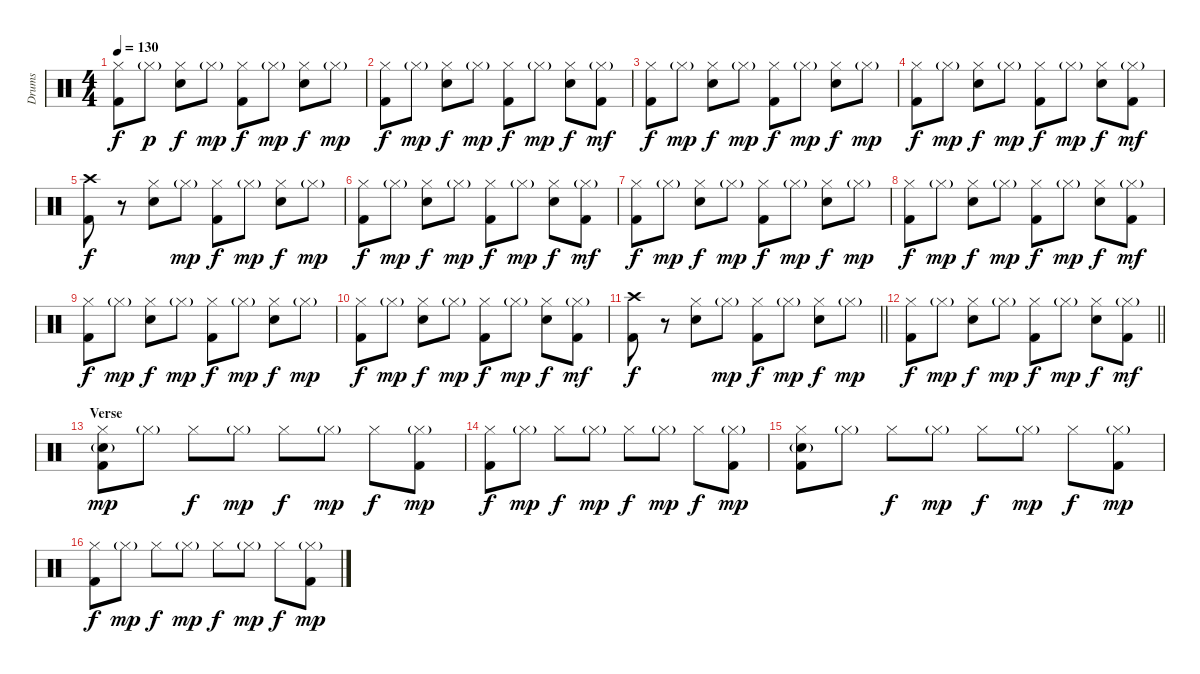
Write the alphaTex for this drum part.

\track ("Drums" "Drums") {instrument percussion}
\staff {score}
\articulation defaults
\ts (4 4)
\tempo 130
\clef neutral
\ks c
("Hi-Hat (closed)" "Kick (hit) 2").8{dy f} "Hi-Hat (closed)"{g}.8{dy p} ("Hi-Hat (closed)" "Snare (hit) 2").8{dy f} "Hi-Hat (closed)"{g}.8{dy mp} ("Hi-Hat (closed)" "Kick (hit) 2").8{dy f} "Hi-Hat (closed)"{g}.8{dy mp} ("Hi-Hat (closed)" "Snare (hit) 2").8{dy f} "Hi-Hat (closed)"{g}.8{dy mp} |
("Hi-Hat (closed)" "Kick (hit) 2").8{dy f} "Hi-Hat (closed)"{g}.8{dy mp} ("Hi-Hat (closed)" "Snare (hit) 2").8{dy f} "Hi-Hat (closed)"{g}.8{dy mp} ("Hi-Hat (closed)" "Kick (hit) 2").8{dy f} "Hi-Hat (closed)"{g}.8{dy mp} ("Hi-Hat (closed)" "Snare (hit) 2").8{dy f} ("Hi-Hat (closed)"{g} "Kick (hit) 2").8{dy mf} |
("Hi-Hat (closed)" "Kick (hit) 2").8{dy f} "Hi-Hat (closed)"{g}.8{dy mp} ("Hi-Hat (closed)" "Snare (hit) 2").8{dy f} "Hi-Hat (closed)"{g}.8{dy mp} ("Hi-Hat (closed)" "Kick (hit) 2").8{dy f} "Hi-Hat (closed)"{g}.8{dy mp} ("Hi-Hat (closed)" "Snare (hit) 2").8{dy f} "Hi-Hat (closed)"{g}.8{dy mp} |
("Hi-Hat (closed)" "Kick (hit) 2").8{dy f} "Hi-Hat (closed)"{g}.8{dy mp} ("Hi-Hat (closed)" "Snare (hit) 2").8{dy f} "Hi-Hat (closed)"{g}.8{dy mp} ("Hi-Hat (closed)" "Kick (hit) 2").8{dy f} "Hi-Hat (closed)"{g}.8{dy mp} ("Hi-Hat (closed)" "Snare (hit) 2").8{dy f} ("Hi-Hat (closed)"{g} "Kick (hit) 2").8{dy mf} |
("Crash high (hit)" "Kick (hit) 2").8{dy f} r.8 ("Hi-Hat (closed)" "Snare (hit) 2").8 "Hi-Hat (closed)"{g}.8{dy mp} ("Hi-Hat (closed)" "Kick (hit) 2").8{dy f} "Hi-Hat (closed)"{g}.8{dy mp} ("Hi-Hat (closed)" "Snare (hit) 2").8{dy f} "Hi-Hat (closed)"{g}.8{dy mp} |
("Hi-Hat (closed)" "Kick (hit) 2").8{dy f} "Hi-Hat (closed)"{g}.8{dy mp} ("Hi-Hat (closed)" "Snare (hit) 2").8{dy f} "Hi-Hat (closed)"{g}.8{dy mp} ("Hi-Hat (closed)" "Kick (hit) 2").8{dy f} "Hi-Hat (closed)"{g}.8{dy mp} ("Hi-Hat (closed)" "Snare (hit) 2").8{dy f} ("Hi-Hat (closed)"{g} "Kick (hit) 2").8{dy mf} |
("Hi-Hat (closed)" "Kick (hit) 2").8{dy f} "Hi-Hat (closed)"{g}.8{dy mp} ("Hi-Hat (closed)" "Snare (hit) 2").8{dy f} "Hi-Hat (closed)"{g}.8{dy mp} ("Hi-Hat (closed)" "Kick (hit) 2").8{dy f} "Hi-Hat (closed)"{g}.8{dy mp} ("Hi-Hat (closed)" "Snare (hit) 2").8{dy f} "Hi-Hat (closed)"{g}.8{dy mp} |
("Hi-Hat (closed)" "Kick (hit) 2").8{dy f} "Hi-Hat (closed)"{g}.8{dy mp} ("Hi-Hat (closed)" "Snare (hit) 2").8{dy f} "Hi-Hat (closed)"{g}.8{dy mp} ("Hi-Hat (closed)" "Kick (hit) 2").8{dy f} "Hi-Hat (closed)"{g}.8{dy mp} ("Hi-Hat (closed)" "Snare (hit) 2").8{dy f} ("Hi-Hat (closed)"{g} "Kick (hit) 2").8{dy mf} |
("Hi-Hat (closed)" "Kick (hit) 2").8{dy f} "Hi-Hat (closed)"{g}.8{dy mp} ("Hi-Hat (closed)" "Snare (hit) 2").8{dy f} "Hi-Hat (closed)"{g}.8{dy mp} ("Hi-Hat (closed)" "Kick (hit) 2").8{dy f} "Hi-Hat (closed)"{g}.8{dy mp} ("Hi-Hat (closed)" "Snare (hit) 2").8{dy f} "Hi-Hat (closed)"{g}.8{dy mp} |
("Hi-Hat (closed)" "Kick (hit) 2").8{dy f} "Hi-Hat (closed)"{g}.8{dy mp} ("Hi-Hat (closed)" "Snare (hit) 2").8{dy f} "Hi-Hat (closed)"{g}.8{dy mp} ("Hi-Hat (closed)" "Kick (hit) 2").8{dy f} "Hi-Hat (closed)"{g}.8{dy mp} ("Hi-Hat (closed)" "Snare (hit) 2").8{dy f} ("Hi-Hat (closed)"{g} "Kick (hit) 2").8{dy mf} |
\barLineRight lightlight
("Crash high (hit)" "Kick (hit) 2").8{dy f} r.8 ("Hi-Hat (closed)" "Snare (hit) 2").8 "Hi-Hat (closed)"{g}.8{dy mp} ("Hi-Hat (closed)" "Kick (hit) 2").8{dy f} "Hi-Hat (closed)"{g}.8{dy mp} ("Hi-Hat (closed)" "Snare (hit) 2").8{dy f} "Hi-Hat (closed)"{g}.8{dy mp} |
\barLineRight lightlight
("Hi-Hat (closed)" "Kick (hit) 2").8{dy f} "Hi-Hat (closed)"{g}.8{dy mp} ("Hi-Hat (closed)" "Snare (hit) 2").8{dy f} "Hi-Hat (closed)"{g}.8{dy mp} ("Hi-Hat (closed)" "Kick (hit) 2").8{dy f} "Hi-Hat (closed)"{g}.8{dy mp} ("Hi-Hat (closed)" "Snare (hit) 2").8{dy f} ("Hi-Hat (closed)"{g} "Kick (hit) 2").8{dy mf} |
\section ("" "Verse")
("Hi-Hat (closed)" "Snare (hit) 2"{g} "Kick (hit) 2").8{dy mp} "Hi-Hat (closed)"{g}.8 "Hi-Hat (closed)".8{dy f} "Hi-Hat (closed)"{g}.8{dy mp} "Hi-Hat (closed)".8{dy f} "Hi-Hat (closed)"{g}.8{dy mp} "Hi-Hat (closed)".8{dy f} ("Hi-Hat (closed)"{g} "Kick (hit) 2").8{dy mp} |
("Hi-Hat (closed)" "Kick (hit) 2").8{dy f} "Hi-Hat (closed)"{g}.8{dy mp} "Hi-Hat (closed)".8{dy f} "Hi-Hat (closed)"{g}.8{dy mp} "Hi-Hat (closed)".8{dy f} "Hi-Hat (closed)"{g}.8{dy mp} "Hi-Hat (closed)".8{dy f} ("Hi-Hat (closed)"{g} "Kick (hit) 2").8{dy mp} |
("Hi-Hat (closed)" "Snare (hit) 2"{g} "Kick (hit) 2").8 "Hi-Hat (closed)"{g}.8 "Hi-Hat (closed)".8{dy f} "Hi-Hat (closed)"{g}.8{dy mp} "Hi-Hat (closed)".8{dy f} "Hi-Hat (closed)"{g}.8{dy mp} "Hi-Hat (closed)".8{dy f} ("Hi-Hat (closed)"{g} "Kick (hit) 2").8{dy mp} |
("Hi-Hat (closed)" "Kick (hit) 2").8{dy f} "Hi-Hat (closed)"{g}.8{dy mp} "Hi-Hat (closed)".8{dy f} "Hi-Hat (closed)"{g}.8{dy mp} "Hi-Hat (closed)".8{dy f} "Hi-Hat (closed)"{g}.8{dy mp} "Hi-Hat (closed)".8{dy f} ("Hi-Hat (closed)"{g} "Kick (hit) 2").8{dy mp}
